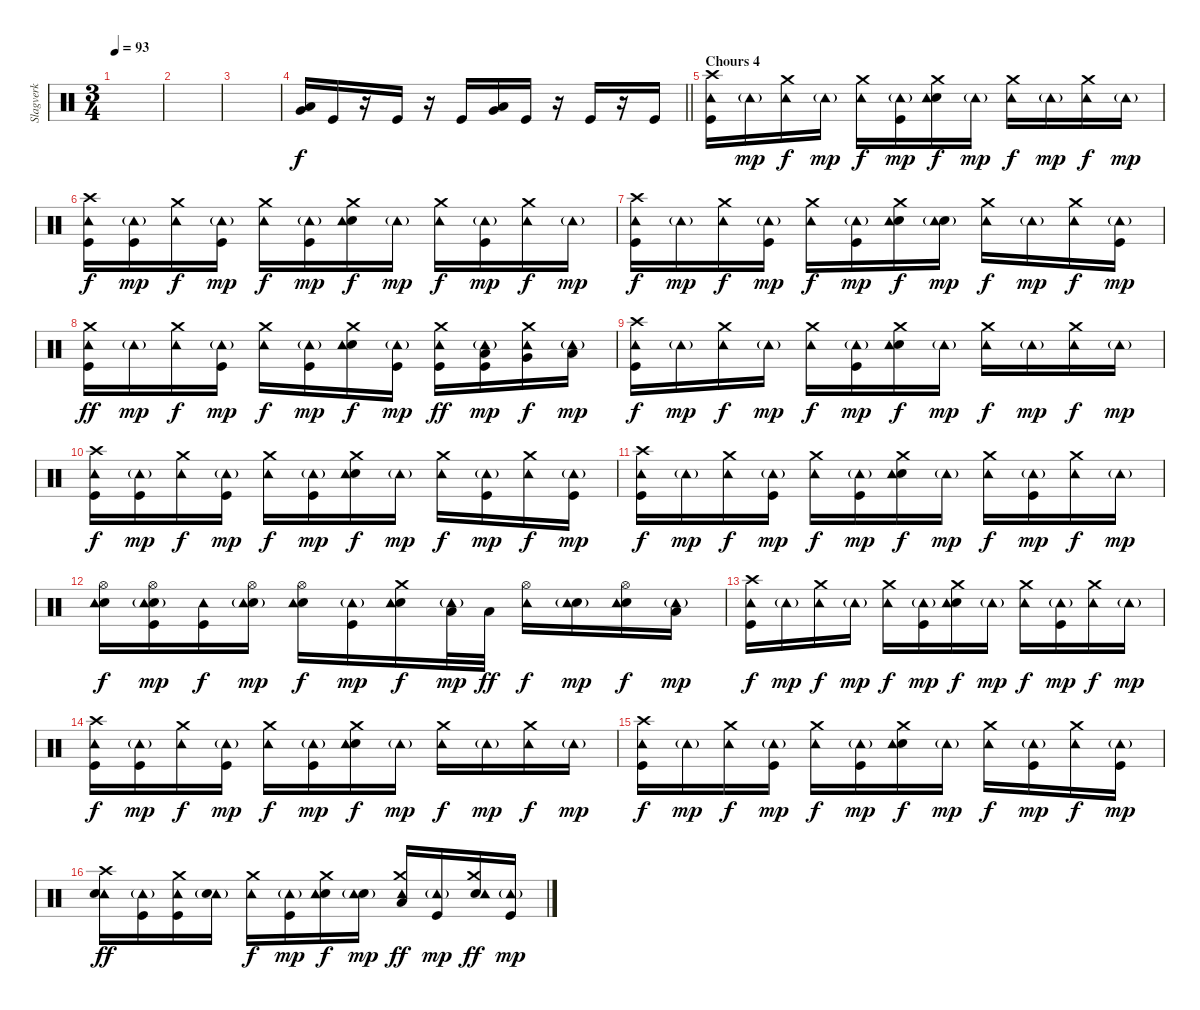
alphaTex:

\track ("Slagverk" "Slagverk") {instrument percussion}
\staff {score}
\articulation defaults
\ts (3 4)
\tempo 93
\clef neutral
\ks c
|
|
|
\barLineRight lightlight
("Low Floor Tom (hit)" "Very Low Tom (hit)").16 "Kick (hit)".16 r.16 "Kick (hit)".16 r.16 "Kick (hit)".16 ("Very Low Tom (hit)" "Low Floor Tom (hit)").16 "Kick (hit)".16 r.16 "Kick (hit)".16 r.16 "Kick (hit)".16 |
\section ("" "Chours 4")
("Crash high (hit)" "Tambourine (hit)" "Kick (hit)").16 "Tambourine (hit)"{g}.16{dy mp} ("Crash medium (hit)" "Tambourine (hit)").16{dy f} "Tambourine (hit)"{g}.16{dy mp} ("Crash medium (hit)" "Tambourine (hit)").16{dy f} ("Kick (hit)" "Tambourine (hit)"{g}).16{dy mp} ("Crash medium (hit)" "Electric Snare (hit)" "Tambourine (hit)").16{dy f} "Tambourine (hit)"{g}.16{dy mp} ("Crash medium (hit)" "Tambourine (hit)").16{dy f} "Tambourine (hit)"{g}.16{dy mp} ("Crash medium (hit)" "Tambourine (hit)").16{dy f} "Tambourine (hit)"{g}.16{dy mp} |
("Crash high (hit)" "Kick (hit)" "Tambourine (hit)").16{dy f} ("Kick (hit)" "Tambourine (hit)"{g}).16{dy mp} ("Crash medium (hit)" "Tambourine (hit)").16{dy f} ("Kick (hit)" "Tambourine (hit)"{g}).16{dy mp} ("Crash medium (hit)" "Tambourine (hit)").16{dy f} ("Kick (hit)" "Tambourine (hit)"{g}).16{dy mp} ("Crash medium (hit)" "Electric Snare (hit)" "Tambourine (hit)").16{dy f} "Tambourine (hit)"{g}.16{dy mp} ("Crash medium (hit)" "Tambourine (hit)").16{dy f} ("Kick (hit)" "Tambourine (hit)"{g}).16{dy mp} ("Crash medium (hit)" "Tambourine (hit)").16{dy f} "Tambourine (hit)"{g}.16{dy mp} |
("Crash high (hit)" "Kick (hit)" "Tambourine (hit)").16{dy f} "Tambourine (hit)"{g}.16{dy mp} ("Crash medium (hit)" "Tambourine (hit)").16{dy f} ("Kick (hit)" "Tambourine (hit)"{g}).16{dy mp} ("Crash medium (hit)" "Tambourine (hit)").16{dy f} ("Kick (hit)" "Tambourine (hit)"{g}).16{dy mp} ("Crash medium (hit)" "Electric Snare (hit)" "Tambourine (hit)").16{dy f} ("Electric Snare (hit)" "Tambourine (hit)"{g}).16{dy mp} ("Crash medium (hit)" "Tambourine (hit)").16{dy f} "Tambourine (hit)"{g}.16{dy mp} ("Crash medium (hit)" "Tambourine (hit)").16{dy f} ("Kick (hit)" "Tambourine (hit)"{g}).16{dy mp} |
("Crash medium (hit)" "Kick (hit)" "Tambourine (hit)").16{dy ff} "Tambourine (hit)"{g}.16{dy mp} ("Crash medium (hit)" "Tambourine (hit)").16{dy f} ("Kick (hit)" "Tambourine (hit)"{g}).16{dy mp} ("Crash medium (hit)" "Tambourine (hit)").16{dy f} ("Kick (hit)" "Tambourine (hit)"{g}).16{dy mp} ("Crash medium (hit)" "Electric Snare (hit)" "Tambourine (hit)").16{dy f} ("Kick (hit)" "Tambourine (hit)"{g}).16{dy mp} ("Crash medium (hit)" "Kick (hit)" "Tambourine (hit)").16{dy ff} ("Kick (hit)" "Low Tom (hit)" "Tambourine (hit)"{g}).16{dy mp} ("Crash medium (hit)" "Very Low Tom (hit)" "Tambourine (hit)").16{dy f} ("Low Floor Tom (hit)" "Tambourine (hit)"{g}).16{dy mp} |
("Crash high (hit)" "Tambourine (hit)" "Kick (hit)").16{dy f} "Tambourine (hit)"{g}.16{dy mp} ("Crash medium (hit)" "Tambourine (hit)").16{dy f} "Tambourine (hit)"{g}.16{dy mp} ("Crash medium (hit)" "Tambourine (hit)").16{dy f} ("Kick (hit)" "Tambourine (hit)"{g}).16{dy mp} ("Crash medium (hit)" "Electric Snare (hit)" "Tambourine (hit)").16{dy f} "Tambourine (hit)"{g}.16{dy mp} ("Crash medium (hit)" "Tambourine (hit)").16{dy f} "Tambourine (hit)"{g}.16{dy mp} ("Crash medium (hit)" "Tambourine (hit)").16{dy f} "Tambourine (hit)"{g}.16{dy mp} |
("Crash high (hit)" "Kick (hit)" "Tambourine (hit)").16{dy f} ("Kick (hit)" "Tambourine (hit)"{g}).16{dy mp} ("Crash medium (hit)" "Tambourine (hit)").16{dy f} ("Kick (hit)" "Tambourine (hit)"{g}).16{dy mp} ("Crash medium (hit)" "Tambourine (hit)").16{dy f} ("Kick (hit)" "Tambourine (hit)"{g}).16{dy mp} ("Crash medium (hit)" "Electric Snare (hit)" "Tambourine (hit)").16{dy f} "Tambourine (hit)"{g}.16{dy mp} ("Crash medium (hit)" "Tambourine (hit)").16{dy f} ("Kick (hit)" "Tambourine (hit)"{g}).16{dy mp} ("Crash medium (hit)" "Tambourine (hit)").16{dy f} ("Kick (hit)" "Tambourine (hit)"{g}).16{dy mp} |
("Crash high (hit)" "Kick (hit)" "Tambourine (hit)").16{dy f} "Tambourine (hit)"{g}.16{dy mp} ("Crash medium (hit)" "Tambourine (hit)").16{dy f} ("Kick (hit)" "Tambourine (hit)"{g}).16{dy mp} ("Crash medium (hit)" "Tambourine (hit)").16{dy f} ("Kick (hit)" "Tambourine (hit)"{g}).16{dy mp} ("Crash medium (hit)" "Electric Snare (hit)" "Tambourine (hit)").16{dy f} "Tambourine (hit)"{g}.16{dy mp} ("Crash medium (hit)" "Tambourine (hit)").16{dy f} ("Kick (hit)" "Tambourine (hit)"{g}).16{dy mp} ("Crash medium (hit)" "Tambourine (hit)").16{dy f} "Tambourine (hit)"{g}.16{dy mp} |
("Hi-Hat (open)" "Electric Snare (hit)" "Tambourine (hit)").16{dy f} ("Hi-Hat (open)" "Electric Snare (hit)" "Kick (hit)" "Tambourine (hit)"{g}).16{dy mp} ("Kick (hit)" "Tambourine (hit)").16{dy f} ("Hi-Hat (open)" "Electric Snare (hit)" "Tambourine (hit)"{g}).16{dy mp} ("Hi-Hat (open)" "Electric Snare (hit)" "Tambourine (hit)").16{dy f} ("Kick (hit)" "Tambourine (hit)"{g}).16{dy mp} ("Electric Snare (hit)" "Crash medium (hit)" "Tambourine (hit)").16{dy f} ("Low Tom (hit)" "Tambourine (hit)"{g}).32{dy mp} "Low Tom (hit)".32{dy ff} ("Hi-Hat (open)" "Tambourine (hit)").16{dy f} ("Electric Snare (hit)" "Tambourine (hit)"{g}).16{dy mp} ("Electric Snare (hit)" "Hi-Hat (open)" "Tambourine (hit)").16{dy f} ("Low Floor Tom (hit)" "Tambourine (hit)"{g}).16{dy mp} |
("Crash high (hit)" "Tambourine (hit)" "Kick (hit)").16{dy f} "Tambourine (hit)"{g}.16{dy mp} ("Crash medium (hit)" "Tambourine (hit)").16{dy f} "Tambourine (hit)"{g}.16{dy mp} ("Crash medium (hit)" "Tambourine (hit)").16{dy f} ("Kick (hit)" "Tambourine (hit)"{g}).16{dy mp} ("Crash medium (hit)" "Electric Snare (hit)" "Tambourine (hit)").16{dy f} "Tambourine (hit)"{g}.16{dy mp} ("Crash medium (hit)" "Tambourine (hit)").16{dy f} ("Kick (hit)" "Tambourine (hit)"{g}).16{dy mp} ("Crash medium (hit)" "Tambourine (hit)").16{dy f} "Tambourine (hit)"{g}.16{dy mp} |
("Crash high (hit)" "Kick (hit)" "Tambourine (hit)").16{dy f} ("Kick (hit)" "Tambourine (hit)"{g}).16{dy mp} ("Crash medium (hit)" "Tambourine (hit)").16{dy f} ("Kick (hit)" "Tambourine (hit)"{g}).16{dy mp} ("Crash medium (hit)" "Tambourine (hit)").16{dy f} ("Kick (hit)" "Tambourine (hit)"{g}).16{dy mp} ("Crash medium (hit)" "Electric Snare (hit)" "Tambourine (hit)").16{dy f} "Tambourine (hit)"{g}.16{dy mp} ("Crash medium (hit)" "Tambourine (hit)").16{dy f} "Tambourine (hit)"{g}.16{dy mp} ("Crash medium (hit)" "Tambourine (hit)").16{dy f} "Tambourine (hit)"{g}.16{dy mp} |
("Crash high (hit)" "Kick (hit)" "Tambourine (hit)").16{dy f} "Tambourine (hit)"{g}.16{dy mp} ("Crash medium (hit)" "Tambourine (hit)").16{dy f} ("Kick (hit)" "Tambourine (hit)"{g}).16{dy mp} ("Crash medium (hit)" "Tambourine (hit)").16{dy f} ("Kick (hit)" "Tambourine (hit)"{g}).16{dy mp} ("Crash medium (hit)" "Electric Snare (hit)" "Tambourine (hit)").16{dy f} "Tambourine (hit)"{g}.16{dy mp} ("Crash medium (hit)" "Tambourine (hit)").16{dy f} ("Kick (hit)" "Tambourine (hit)"{g}).16{dy mp} ("Crash medium (hit)" "Tambourine (hit)").16{dy f} ("Kick (hit)" "Tambourine (hit)"{g}).16{dy mp} |
("Crash high (hit)" "Tambourine (hit)" "Electric Snare (hit)").16{dy ff} ("Tambourine (hit)"{g} "Kick (hit)").16 ("Crash medium (hit)" "Tambourine (hit)" "Kick (hit)").16 ("Tambourine (hit)"{g} "Electric Snare (hit)").16 ("Crash medium (hit)" "Tambourine (hit)").16{dy f} ("Kick (hit)" "Tambourine (hit)"{g}).16{dy mp} ("Crash medium (hit)" "Electric Snare (hit)" "Tambourine (hit)").16{dy f} ("Electric Snare (hit)" "Tambourine (hit)"{g}).16{dy mp} ("Crash medium (hit)" "Low Tom (hit)" "Tambourine (hit)").16{dy ff} ("Kick (hit)" "Tambourine (hit)"{g}).16{dy mp} ("Crash medium (hit)" "Electric Snare (hit)" "Tambourine (hit)").16{dy ff} ("Kick (hit)" "Tambourine (hit)"{g}).16{dy mp}
